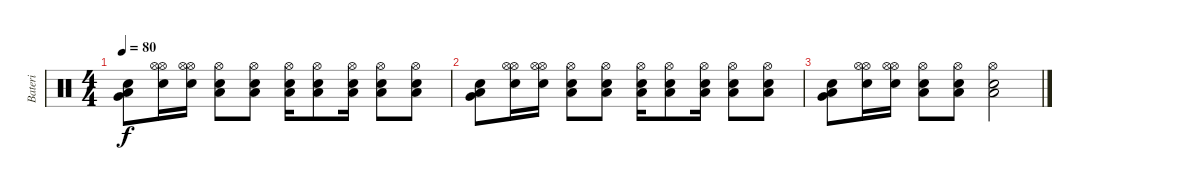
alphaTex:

\track ("Bateri" "Bateri") {instrument percussion}
\staff {score}
\articulation defaults
\ts (4 4)
\tempo 80
\clef neutral
\ks c
("Electric Snare (hit)" "Low Floor Tom (hit)" "Very Low Tom (hit)").8{dy f} ("Hi-Hat (open)" "Hi-Hat (open)" "Electric Snare (hit)").16 ("Hi-Hat (open)" "Hi-Hat (open)" "Electric Snare (hit)").16 ("Low Floor Tom (hit)" "Hi-Hat (open)" "Electric Snare (hit)").8 ("Low Floor Tom (hit)" "Hi-Hat (open)" "Electric Snare (hit)").8 ("Low Floor Tom (hit)" "Hi-Hat (open)" "Electric Snare (hit)").16 ("Low Floor Tom (hit)" "Hi-Hat (open)" "Electric Snare (hit)").8 ("Low Floor Tom (hit)" "Hi-Hat (open)" "Electric Snare (hit)").16 ("Low Floor Tom (hit)" "Hi-Hat (open)" "Electric Snare (hit)").8 ("Low Floor Tom (hit)" "Hi-Hat (open)" "Electric Snare (hit)").8 |
("Electric Snare (hit)" "Low Floor Tom (hit)" "Very Low Tom (hit)").8 ("Hi-Hat (open)" "Hi-Hat (open)" "Electric Snare (hit)").16 ("Hi-Hat (open)" "Hi-Hat (open)" "Electric Snare (hit)").16 ("Low Floor Tom (hit)" "Hi-Hat (open)" "Electric Snare (hit)").8 ("Low Floor Tom (hit)" "Hi-Hat (open)" "Electric Snare (hit)").8 ("Low Floor Tom (hit)" "Hi-Hat (open)" "Electric Snare (hit)").16 ("Low Floor Tom (hit)" "Hi-Hat (open)" "Electric Snare (hit)").8 ("Low Floor Tom (hit)" "Hi-Hat (open)" "Electric Snare (hit)").16 ("Low Floor Tom (hit)" "Hi-Hat (open)" "Electric Snare (hit)").8 ("Low Floor Tom (hit)" "Hi-Hat (open)" "Electric Snare (hit)").8 |
("Electric Snare (hit)" "Low Floor Tom (hit)" "Very Low Tom (hit)").8 ("Hi-Hat (open)" "Hi-Hat (open)" "Electric Snare (hit)").16 ("Hi-Hat (open)" "Hi-Hat (open)" "Electric Snare (hit)").16 ("Low Floor Tom (hit)" "Hi-Hat (open)" "Electric Snare (hit)").8 ("Low Floor Tom (hit)" "Hi-Hat (open)" "Electric Snare (hit)").8 ("Low Floor Tom (hit)" "Hi-Hat (open)" "Electric Snare (hit)").2
